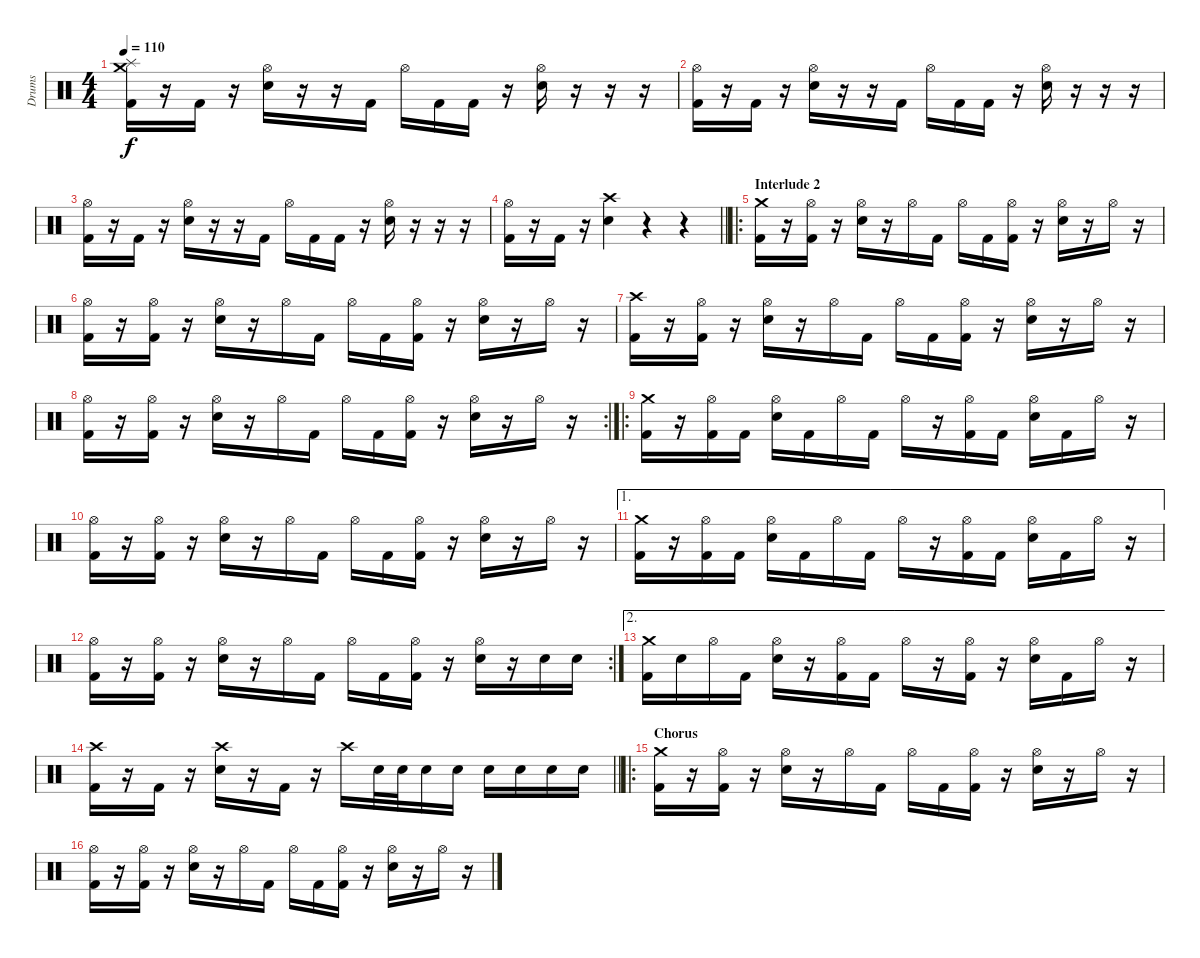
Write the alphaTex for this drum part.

\track ("Drums" "Drums") {instrument percussion}
\staff {score}
\articulation defaults
\ts (4 4)
\tempo 110
\clef neutral
\ks c
("Crash medium (hit)" "Splash (hit)" "Kick (hit) 2").16{dy f} r.16 "Kick (hit) 2".16 r.16 ("Hi-Hat (open)" "Electric Snare (hit)").16 r.16 r.16 "Kick (hit) 2".16 "Hi-Hat (open)".16 "Kick (hit) 2".16 "Kick (hit) 2".16 r.16 ("Hi-Hat (open)" "Electric Snare (hit)").16 r.16 r.16 r.16 |
("Hi-Hat (open)" "Kick (hit) 2").16 r.16 "Kick (hit) 2".16 r.16 ("Hi-Hat (open)" "Electric Snare (hit)").16 r.16 r.16 "Kick (hit) 2".16 "Hi-Hat (open)".16 "Kick (hit) 2".16 "Kick (hit) 2".16 r.16 ("Hi-Hat (open)" "Electric Snare (hit)").16 r.16 r.16 r.16 |
("Hi-Hat (open)" "Kick (hit) 2").16 r.16 "Kick (hit) 2".16 r.16 ("Hi-Hat (open)" "Electric Snare (hit)").16 r.16 r.16 "Kick (hit) 2".16 "Hi-Hat (open)".16 "Kick (hit) 2".16 "Kick (hit) 2".16 r.16 ("Hi-Hat (open)" "Electric Snare (hit)").16 r.16 r.16 r.16 |
\barLineRight lightlight
("Hi-Hat (open)" "Kick (hit) 2").16 r.16 "Kick (hit) 2".16 r.16 ("Crash high (hit)" "Electric Snare (hit)").4 r.4 r.4 |
\ro
\section ("" "Interlude 2")
("Crash medium (hit)" "Kick (hit) 2").16 r.16 ("Hi-Hat (open)" "Kick (hit) 2").16 r.16 ("Hi-Hat (open)" "Electric Snare (hit)").16 r.16 "Hi-Hat (open)".16 "Kick (hit) 2".16 "Hi-Hat (open)".16 "Kick (hit) 2".16 ("Hi-Hat (open)" "Kick (hit) 2").16 r.16 ("Hi-Hat (open)" "Electric Snare (hit)").16 r.16 "Hi-Hat (open)".16 r.16 |
("Hi-Hat (open)" "Kick (hit) 2").16 r.16 ("Hi-Hat (open)" "Kick (hit) 2").16 r.16 ("Hi-Hat (open)" "Electric Snare (hit)").16 r.16 "Hi-Hat (open)".16 "Kick (hit) 2".16 "Hi-Hat (open)".16 "Kick (hit) 2".16 ("Hi-Hat (open)" "Kick (hit) 2").16 r.16 ("Hi-Hat (open)" "Electric Snare (hit)").16 r.16 "Hi-Hat (open)".16 r.16 |
("Crash high (hit)" "Kick (hit) 2").16 r.16 ("Hi-Hat (open)" "Kick (hit) 2").16 r.16 ("Hi-Hat (open)" "Electric Snare (hit)").16 r.16 "Hi-Hat (open)".16 "Kick (hit) 2".16 "Hi-Hat (open)".16 "Kick (hit) 2".16 ("Hi-Hat (open)" "Kick (hit) 2").16 r.16 ("Hi-Hat (open)" "Electric Snare (hit)").16 r.16 "Hi-Hat (open)".16 r.16 |
\rc 2
("Hi-Hat (open)" "Kick (hit) 2").16 r.16 ("Hi-Hat (open)" "Kick (hit) 2").16 r.16 ("Hi-Hat (open)" "Electric Snare (hit)").16 r.16 "Hi-Hat (open)".16 "Kick (hit) 2".16 "Hi-Hat (open)".16 "Kick (hit) 2".16 ("Hi-Hat (open)" "Kick (hit) 2").16 r.16 ("Hi-Hat (open)" "Electric Snare (hit)").16 r.16 "Hi-Hat (open)".16 r.16 |
\ro
("Crash medium (hit)" "Kick (hit) 2").16 r.16 ("Hi-Hat (open)" "Kick (hit) 2").16 "Kick (hit) 2".16 ("Hi-Hat (open)" "Electric Snare (hit)").16 "Kick (hit) 2".16 "Hi-Hat (open)".16 "Kick (hit) 2".16 "Hi-Hat (open)".16 r.16 ("Hi-Hat (open)" "Kick (hit) 2").16 "Kick (hit) 2".16 ("Hi-Hat (open)" "Electric Snare (hit)").16 "Kick (hit) 2".16 "Hi-Hat (open)".16 r.16 |
("Hi-Hat (open)" "Kick (hit) 2").16 r.16 ("Hi-Hat (open)" "Kick (hit) 2").16 r.16 ("Hi-Hat (open)" "Electric Snare (hit)").16 r.16 "Hi-Hat (open)".16 "Kick (hit) 2".16 "Hi-Hat (open)".16 "Kick (hit) 2".16 ("Hi-Hat (open)" "Kick (hit) 2").16 r.16 ("Hi-Hat (open)" "Electric Snare (hit)").16 r.16 "Hi-Hat (open)".16 r.16 |
\ae 1
("Crash medium (hit)" "Kick (hit) 2").16 r.16 ("Hi-Hat (open)" "Kick (hit) 2").16 "Kick (hit) 2".16 ("Hi-Hat (open)" "Electric Snare (hit)").16 "Kick (hit) 2".16 "Hi-Hat (open)".16 "Kick (hit) 2".16 "Hi-Hat (open)".16 r.16 ("Hi-Hat (open)" "Kick (hit) 2").16 "Kick (hit) 2".16 ("Hi-Hat (open)" "Electric Snare (hit)").16 "Kick (hit) 2".16 "Hi-Hat (open)".16 r.16 |
\rc 2
("Hi-Hat (open)" "Kick (hit) 2").16 r.16 ("Hi-Hat (open)" "Kick (hit) 2").16 r.16 ("Hi-Hat (open)" "Electric Snare (hit)").16 r.16 "Hi-Hat (open)".16 "Kick (hit) 2".16 "Hi-Hat (open)".16 "Kick (hit) 2".16 ("Hi-Hat (open)" "Kick (hit) 2").16 r.16 ("Hi-Hat (open)" "Electric Snare (hit)").16 r.16 "Electric Snare (hit)".16 "Electric Snare (hit)".16 |
\ae 2
("Crash medium (hit)" "Kick (hit) 2").16 "Electric Snare (hit)".16 "Hi-Hat (open)".16 "Kick (hit) 2".16 ("Hi-Hat (open)" "Electric Snare (hit)").16 r.16 ("Hi-Hat (open)" "Kick (hit) 2").16 "Kick (hit) 2".16 "Hi-Hat (open)".16 r.16 ("Hi-Hat (open)" "Kick (hit) 2").16 r.16 ("Hi-Hat (open)" "Electric Snare (hit)").16 "Kick (hit) 2".16 "Hi-Hat (open)".16 r.16 |
\barLineRight lightlight
("Crash high (hit)" "Kick (hit) 2").16 r.16 "Kick (hit) 2".16 r.16 ("Crash high (hit)" "Electric Snare (hit)").16 r.16 "Kick (hit) 2".16 r.16 "Crash high (hit)".16 "Electric Snare (hit)".32 "Electric Snare (hit)".32 "Electric Snare (hit)".16 "Electric Snare (hit)".16 "Electric Snare (hit)".16 "Electric Snare (hit)".16 "Electric Snare (hit)".16 "Electric Snare (hit)".16 |
\ro
\section ("" "Chorus")
("Crash medium (hit)" "Kick (hit) 2").16 r.16 ("Hi-Hat (open)" "Kick (hit) 2").16 r.16 ("Hi-Hat (open)" "Electric Snare (hit)").16 r.16 "Hi-Hat (open)".16 "Kick (hit) 2".16 "Hi-Hat (open)".16 "Kick (hit) 2".16 ("Hi-Hat (open)" "Kick (hit) 2").16 r.16 ("Hi-Hat (open)" "Electric Snare (hit)").16 r.16 "Hi-Hat (open)".16 r.16 |
("Hi-Hat (open)" "Kick (hit) 2").16 r.16 ("Hi-Hat (open)" "Kick (hit) 2").16 r.16 ("Hi-Hat (open)" "Electric Snare (hit)").16 r.16 "Hi-Hat (open)".16 "Kick (hit) 2".16 "Hi-Hat (open)".16 "Kick (hit) 2".16 ("Hi-Hat (open)" "Kick (hit) 2").16 r.16 ("Hi-Hat (open)" "Electric Snare (hit)").16 r.16 "Hi-Hat (open)".16 r.16
